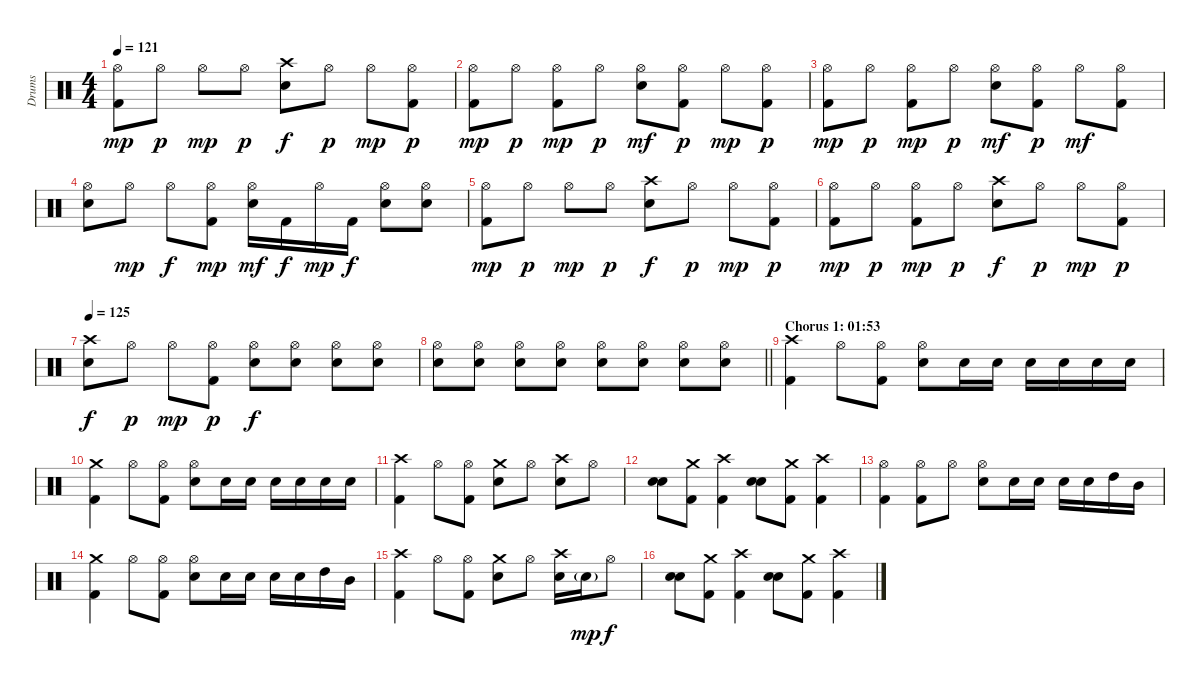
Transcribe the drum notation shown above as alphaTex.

\track ("Drums" "Drums") {instrument percussion}
\staff {score}
\articulation defaults
\ts (4 4)
\tempo 121
\clef neutral
\ks c
("Hi-Hat (open)" "Kick (hit) 2").8{dy mp} "Hi-Hat (open)".8{dy p} "Hi-Hat (open)".8{dy mp} "Hi-Hat (open)".8{dy p} ("Crash high (hit)" "Electric Snare (hit)").8{dy f} "Hi-Hat (open)".8{dy p} "Hi-Hat (open)".8{dy mp} ("Hi-Hat (open)" "Kick (hit) 2").8{dy p} |
("Hi-Hat (open)" "Kick (hit) 2").8{dy mp} "Hi-Hat (open)".8{dy p} ("Hi-Hat (open)" "Kick (hit) 2").8{dy mp} "Hi-Hat (open)".8{dy p} ("Hi-Hat (open)" "Electric Snare (hit)").8{dy mf} ("Hi-Hat (open)" "Kick (hit) 2").8{dy p} "Hi-Hat (open)".8{dy mp} ("Hi-Hat (open)" "Kick (hit) 2").8{dy p} |
("Hi-Hat (open)" "Kick (hit) 2").8{dy mp} "Hi-Hat (open)".8{dy p} ("Hi-Hat (open)" "Kick (hit) 2").8{dy mp} "Hi-Hat (open)".8{dy p} ("Hi-Hat (open)" "Electric Snare (hit)").8{dy mf} ("Hi-Hat (open)" "Kick (hit) 2").8{dy p} "Hi-Hat (open)".8{dy mf} ("Hi-Hat (open)" "Kick (hit) 2").8 |
("Hi-Hat (open)" "Electric Snare (hit)").8 "Hi-Hat (open)".8{dy mp} "Hi-Hat (open)".8{dy f} ("Hi-Hat (open)" "Kick (hit) 2").8{dy mp} ("Hi-Hat (open)" "Electric Snare (hit)").16{dy mf} "Kick (hit) 2".16{dy f} "Hi-Hat (open)".16{dy mp} "Kick (hit) 2".16{dy f} ("Hi-Hat (open)" "Electric Snare (hit)").8 ("Hi-Hat (open)" "Electric Snare (hit)").8 |
("Hi-Hat (open)" "Kick (hit) 2").8{dy mp} "Hi-Hat (open)".8{dy p} "Hi-Hat (open)".8{dy mp} "Hi-Hat (open)".8{dy p} ("Crash high (hit)" "Electric Snare (hit)").8{dy f} "Hi-Hat (open)".8{dy p} "Hi-Hat (open)".8{dy mp} ("Hi-Hat (open)" "Kick (hit) 2").8{dy p} |
("Hi-Hat (open)" "Kick (hit) 2").8{dy mp} "Hi-Hat (open)".8{dy p} ("Hi-Hat (open)" "Kick (hit) 2").8{dy mp} "Hi-Hat (open)".8{dy p} ("Crash high (hit)" "Electric Snare (hit)").8{dy f} "Hi-Hat (open)".8{dy p} "Hi-Hat (open)".8{dy mp} ("Hi-Hat (open)" "Kick (hit) 2").8{dy p} |
\tempo 125
("Crash high (hit)" "Electric Snare (hit)").8{dy f} "Hi-Hat (open)".8{dy p} "Hi-Hat (open)".8{dy mp} ("Hi-Hat (open)" "Kick (hit) 2").8{dy p} ("Hi-Hat (open)" "Electric Snare (hit)").8{dy f} ("Hi-Hat (open)" "Electric Snare (hit)").8 ("Hi-Hat (open)" "Electric Snare (hit)").8 ("Hi-Hat (open)" "Electric Snare (hit)").8 |
\barLineRight lightlight
("Hi-Hat (open)" "Electric Snare (hit)").8 ("Hi-Hat (open)" "Electric Snare (hit)").8 ("Hi-Hat (open)" "Electric Snare (hit)").8 ("Hi-Hat (open)" "Electric Snare (hit)").8 ("Hi-Hat (open)" "Electric Snare (hit)").8 ("Hi-Hat (open)" "Electric Snare (hit)").8 ("Hi-Hat (open)" "Electric Snare (hit)").8 ("Hi-Hat (open)" "Electric Snare (hit)").8 |
\section ("" "Chorus 1: 01:53")
("Crash high (hit)" "Kick (hit) 2").4 "Hi-Hat (open)".8 ("Hi-Hat (open)" "Kick (hit) 2").8 ("Hi-Hat (open)" "Electric Snare (hit)").8 "Electric Snare (hit)".16 "Electric Snare (hit)".16 "Electric Snare (hit)".16 "Electric Snare (hit)".16 "Electric Snare (hit)".16 "Electric Snare (hit)".16 |
("Crash medium (hit)" "Kick (hit) 2").4 "Hi-Hat (open)".8 ("Hi-Hat (open)" "Kick (hit) 2").8 ("Hi-Hat (open)" "Electric Snare (hit)").8 "Electric Snare (hit)".16 "Electric Snare (hit)".16 "Electric Snare (hit)".16 "Electric Snare (hit)".16 "Electric Snare (hit)".16 "Electric Snare (hit)".16 |
("Crash high (hit)" "Kick (hit) 2").4 "Hi-Hat (open)".8 ("Hi-Hat (open)" "Kick (hit) 2").8 ("Crash medium (hit)" "Electric Snare (hit)").8 "Hi-Hat (open)".8 ("Crash high (hit)" "Electric Snare (hit)").8 "Hi-Hat (open)".8 |
("Electric Snare (hit)" "Electric Snare (hit)").8{bd 60} ("Crash medium (hit)" "Kick (hit) 2").8 ("Crash high (hit)" "Kick (hit) 2").4 ("Electric Snare (hit)" "Electric Snare (hit)").8{bd 60} ("Crash medium (hit)" "Kick (hit) 2").8 ("Crash high (hit)" "Kick (hit) 2").4 |
("Hi-Hat (open)" "Kick (hit) 2").4 ("Hi-Hat (open)" "Kick (hit) 2").8 "Hi-Hat (open)".8 ("Hi-Hat (open)" "Electric Snare (hit)").8 "Electric Snare (hit)".16 "Electric Snare (hit)".16 "Electric Snare (hit)".16 "Electric Snare (hit)".16 "High Tom (hit)".16 "Mid Tom (hit)".16 |
("Crash medium (hit)" "Kick (hit) 2").4 "Hi-Hat (open)".8 ("Hi-Hat (open)" "Kick (hit) 2").8 ("Hi-Hat (open)" "Electric Snare (hit)").8 "Electric Snare (hit)".16 "Electric Snare (hit)".16 "Electric Snare (hit)".16 "Electric Snare (hit)".16 "High Tom (hit)".16 "Mid Tom (hit)".16 |
("Crash high (hit)" "Kick (hit) 2").4 "Hi-Hat (open)".8 ("Hi-Hat (open)" "Kick (hit) 2").8 ("Crash medium (hit)" "Electric Snare (hit)").8 "Hi-Hat (open)".8 ("Crash high (hit)" "Electric Snare (hit)").16 "Electric Snare (hit)"{g}.16{dy mp} "Hi-Hat (open)".8{dy f} |
("Electric Snare (hit)" "Electric Snare (hit)").8{bd 60} ("Crash medium (hit)" "Kick (hit) 2").8 ("Crash high (hit)" "Kick (hit) 2").4 ("Electric Snare (hit)" "Electric Snare (hit)").8{bd 60} ("Crash medium (hit)" "Kick (hit) 2").8 ("Crash high (hit)" "Kick (hit) 2").4
